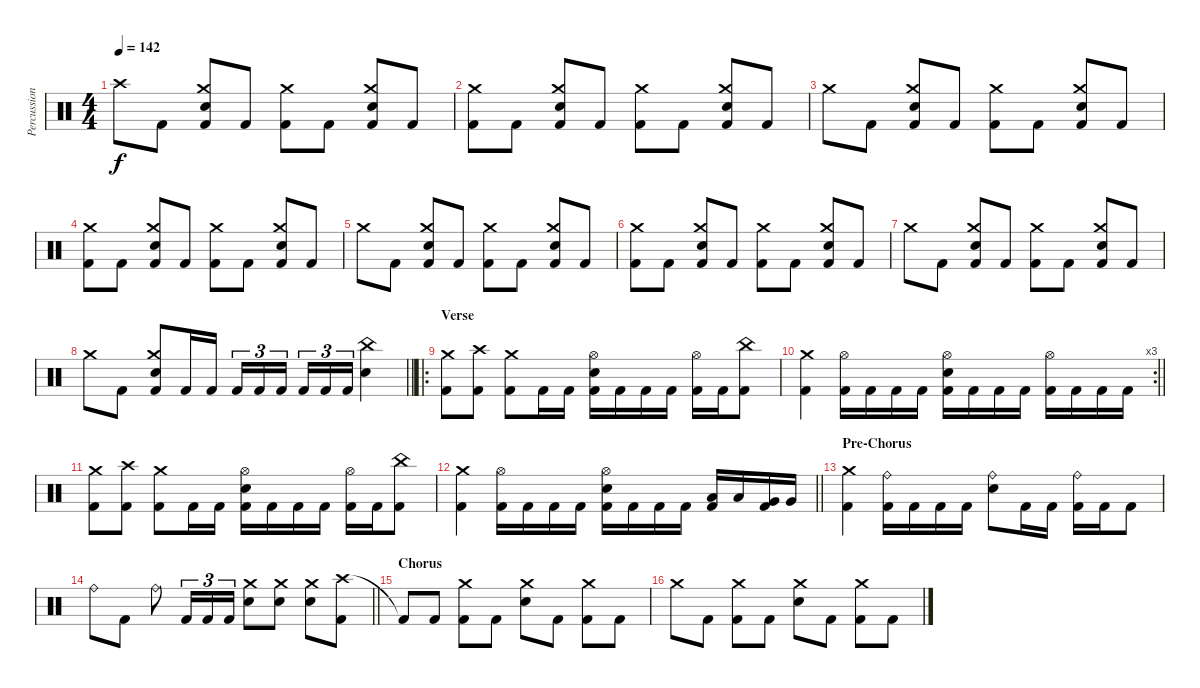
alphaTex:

\track ("Percussion" "Percussion") {instrument percussion}
\staff {score}
\articulation defaults
\ts (4 4)
\tempo 142
\clef neutral
\ks c "Crash high (hit)"{t}.8{dy f} "Kick (hit) 2".8
("Crash medium (hit)" "Electric Snare (hit)" "Kick (hit) 2").8 "Kick (hit) 2".8 ("Crash medium (hit)" "Kick (hit) 2").8 "Kick (hit) 2".8 ("Crash medium (hit)" "Electric Snare (hit)" "Kick (hit) 2").8 "Kick (hit) 2".8 |
("Crash medium (hit)" "Kick (hit) 2").8 "Kick (hit) 2".8 ("Crash medium (hit)" "Electric Snare (hit)" "Kick (hit) 2").8 "Kick (hit) 2".8 ("Crash medium (hit)" "Kick (hit) 2").8 "Kick (hit) 2".8 ("Crash medium (hit)" "Electric Snare (hit)" "Kick (hit) 2").8 "Kick (hit) 2".8 |
"Crash medium (hit)".8 "Kick (hit) 2".8 ("Crash medium (hit)" "Electric Snare (hit)" "Kick (hit) 2").8 "Kick (hit) 2".8 ("Crash medium (hit)" "Kick (hit) 2").8 "Kick (hit) 2".8 ("Crash medium (hit)" "Electric Snare (hit)" "Kick (hit) 2").8 "Kick (hit) 2".8 |
("Crash medium (hit)" "Kick (hit) 2").8 "Kick (hit) 2".8 ("Crash medium (hit)" "Electric Snare (hit)" "Kick (hit) 2").8 "Kick (hit) 2".8 ("Crash medium (hit)" "Kick (hit) 2").8 "Kick (hit) 2".8 ("Crash medium (hit)" "Electric Snare (hit)" "Kick (hit) 2").8 "Kick (hit) 2".8 |
"Crash medium (hit)".8 "Kick (hit) 2".8 ("Crash medium (hit)" "Electric Snare (hit)" "Kick (hit) 2").8 "Kick (hit) 2".8 ("Crash medium (hit)" "Kick (hit) 2").8 "Kick (hit) 2".8 ("Crash medium (hit)" "Electric Snare (hit)" "Kick (hit) 2").8 "Kick (hit) 2".8 |
("Crash medium (hit)" "Kick (hit) 2").8 "Kick (hit) 2".8 ("Crash medium (hit)" "Electric Snare (hit)" "Kick (hit) 2").8 "Kick (hit) 2".8 ("Crash medium (hit)" "Kick (hit) 2").8 "Kick (hit) 2".8 ("Crash medium (hit)" "Electric Snare (hit)" "Kick (hit) 2").8 "Kick (hit) 2".8 |
"Crash medium (hit)".8 "Kick (hit) 2".8 ("Crash medium (hit)" "Electric Snare (hit)" "Kick (hit) 2").8 "Kick (hit) 2".8 ("Crash medium (hit)" "Kick (hit) 2").8 "Kick (hit) 2".8 ("Crash medium (hit)" "Electric Snare (hit)" "Kick (hit) 2").8 "Kick (hit) 2".8 |
\barLineRight lightlight "Crash medium (hit)".8 "Kick (hit) 2".8
("Crash medium (hit)" "Electric Snare (hit)" "Kick (hit) 2").8 "Kick (hit) 2".16 "Kick (hit) 2".16 "Kick (hit) 2".16{tu (3 2)} "Kick (hit) 2".16{tu (3 2)} "Kick (hit) 2".16{tu (3 2) beam splitsecondary} "Kick (hit) 2".16{tu (3 2)} "Kick (hit) 2".16{tu (3 2)} "Kick (hit) 2".16{tu (3 2)} ("China (hit)" "Electric Snare (hit)").4 |
\ro
\section ("" "Verse")
("Crash medium (hit)" "Kick (hit) 2").8 ("Crash high (hit)" "Kick (hit) 2").8 ("Crash medium (hit)" "Kick (hit) 2").8 "Kick (hit) 2".16 "Kick (hit) 2".16 ("Hi-Hat (open)" "Electric Snare (hit)" "Kick (hit) 2").16 "Kick (hit) 2".16 "Kick (hit) 2".16 "Kick (hit) 2".16 ("Hi-Hat (open)" "Kick (hit) 2").16 "Kick (hit) 2".16 ("China (hit)" "Kick (hit) 2").8 |
\rc 3
\barLineRight lightlight
("Crash medium (hit)" "Kick (hit) 2").4 ("Hi-Hat (open)" "Kick (hit) 2").16 "Kick (hit) 2".16 "Kick (hit) 2".16 "Kick (hit) 2".16 ("Hi-Hat (open)" "Electric Snare (hit)" "Kick (hit) 2").16 "Kick (hit) 2".16 "Kick (hit) 2".16 "Kick (hit) 2".16 ("Hi-Hat (open)" "Kick (hit) 2").16 "Kick (hit) 2".16 "Kick (hit) 2".16 "Kick (hit) 2".16 |
("Crash medium (hit)" "Kick (hit) 2").8 ("Crash high (hit)" "Kick (hit) 2").8 ("Crash medium (hit)" "Kick (hit) 2").8 "Kick (hit) 2".16 "Kick (hit) 2".16 ("Hi-Hat (open)" "Electric Snare (hit)" "Kick (hit) 2").16 "Kick (hit) 2".16 "Kick (hit) 2".16 "Kick (hit) 2".16 ("Hi-Hat (open)" "Kick (hit) 2").16 "Kick (hit) 2".16 ("China (hit)" "Kick (hit) 2").8 |
\barLineRight lightlight
("Crash medium (hit)" "Kick (hit) 2").4 ("Hi-Hat (open)" "Kick (hit) 2").16 "Kick (hit) 2".16 "Kick (hit) 2".16 "Kick (hit) 2".16 ("Hi-Hat (open)" "Electric Snare (hit)" "Kick (hit) 2").16 "Kick (hit) 2".16 "Kick (hit) 2".16 "Kick (hit) 2".16 ("Low Tom (hit)" "Kick (hit) 2").16 "Low Tom (hit)".16 ("Very Low Tom (hit)" "Kick (hit) 2").16 "Very Low Tom (hit)".16 |
\section ("" "Pre-Chorus")
("Crash medium (hit)" "Kick (hit) 2").4 ("Ride (bell)" "Kick (hit) 2").16 "Kick (hit) 2".16 "Kick (hit) 2".16 "Kick (hit) 2".16 ("Ride (bell)" "Electric Snare (hit)").8 "Kick (hit) 2".16 "Kick (hit) 2".16 ("Ride (bell)" "Kick (hit) 2").16 "Kick (hit) 2".16 "Kick (hit) 2".8 |
\barLineRight lightlight "Ride (bell)".8 "Kick (hit) 2".8 "Ride (bell)".8 "Kick (hit) 2".16{tu (3 2)} "Kick (hit) 2".16{tu (3 2)} "Kick (hit) 2".16{tu (3 2)}
("Crash medium (hit)" "Electric Snare (hit)").8 ("Crash medium (hit)" "Electric Snare (hit)").8 ("Crash medium (hit)" "Electric Snare (hit)").8 ("Crash high (hit)" "Kick (hit) 2").8 |
\section ("" "Chorus")
"Kick (hit) 2"{t}.8 "Kick (hit) 2".8 ("Crash medium (hit)" "Kick (hit) 2").8 "Kick (hit) 2".8 ("Crash medium (hit)" "Electric Snare (hit)").8 "Kick (hit) 2".8 ("Crash medium (hit)" "Kick (hit) 2").8 "Kick (hit) 2".8 |
"Crash medium (hit)".8 "Kick (hit) 2".8 ("Crash medium (hit)" "Kick (hit) 2").8 "Kick (hit) 2".8 ("Crash medium (hit)" "Electric Snare (hit)").8 "Kick (hit) 2".8 ("Crash medium (hit)" "Kick (hit) 2").8 "Kick (hit) 2".8
